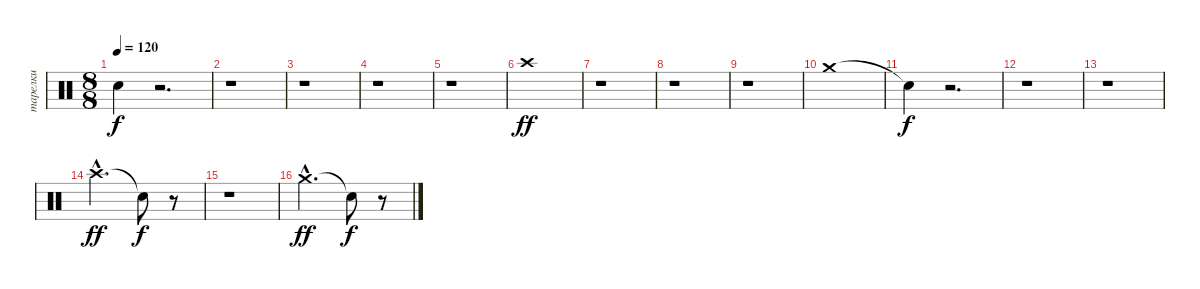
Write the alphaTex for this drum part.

\track ("тарелки" "тарелки") {instrument percussion}
\staff {score}
\articulation defaults
\ts (8 8)
\tempo 120
\clef neutral
\ks c "Snare (hit)"{t}.4{dy f}
r.2{d} |
r.1 |
r.1 |
r.1 |
r.1 |
"Crash high (hit)".1{dy ff} |
r.1 |
r.1 |
r.1 |
"Crash medium (hit)".1 |
"Snare (hit)"{t}.4{dy f} r.2{d} |
r.1 |
r.1 |
"Crash high (hit)"{hac}.2{d dy ff} "Snare (hit)"{t}.8{dy f} r.8 |
r.1 |
"Crash medium (hit)"{hac}.2{d dy ff} "Snare (hit)"{t}.8{dy f} r.8
